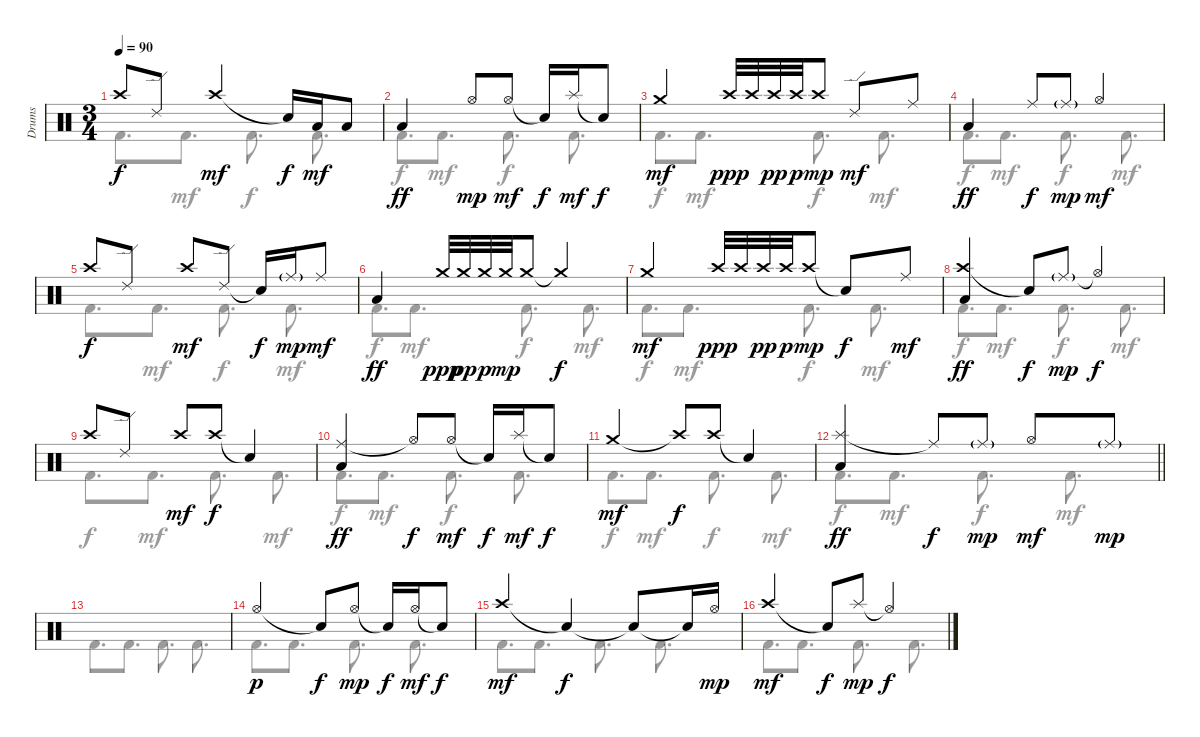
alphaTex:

\track ("Drums" "Drums") {instrument percussion}
\staff {score}
\articulation defaults
\voice
\ts (3 4)
\tempo 90
\clef neutral
\ks c "Crash high (hit)".8{dy f} "Ride (edge) 2".8 "Crash high (hit)".4{dy mf} "Snare (hit)"{t}.16{dy f} "Low Floor Tom (hit)".16{dy mf} "Low Floor Tom (hit)".8
|
"Low Tom (hit)".4{dy ff} "Hi-Hat (open)".8{dy mp} "Hi-Hat (open)".8{dy mf} "Snare (hit)"{t}.16{dy f} "Splash (hit)".16{dy mf} "Snare (hit)"{t}.8{dy f} |
"Crash medium (hit)".4{dy mf} "Crash high (hit)".32{dy ppp} "Crash high (hit)".32 "Crash high (hit)".32{dy pp} "Crash high (hit)".32{dy p} "Crash high (hit)".8{dy mp} "Ride (edge) 2".8{dy mf} "Ride (middle)".8 |
"Low Tom (hit)".4{dy ff} "Ride (middle)".8{dy f} "Ride (middle)"{g}.8{dy mp} "Hi-Hat (open)".4{dy mf} |
"Crash high (hit)".8{dy f} "Ride (edge) 2".8 "Crash high (hit)".8{dy mf} "Ride (edge) 2".8 "Snare (hit)"{t}.16{dy f} "Ride (middle)"{g}.16{dy mp} "Ride (middle)".8{dy mf} |
"Low Tom (hit)".4{dy ff} "Crash medium (hit)".32{dy ppp} "Crash medium (hit)".32{dy pp} "Crash medium (hit)".32{dy p} "Crash medium (hit)".32{dy mp} "Crash medium (hit)".8 "Crash medium (hit)"{t}.4{dy f} |
"Crash medium (hit)".4{dy mf} "Crash high (hit)".32{dy ppp} "Crash high (hit)".32 "Crash high (hit)".32{dy pp} "Crash high (hit)".32{dy p} "Crash high (hit)".8{dy mp} "Snare (hit)"{t}.8{dy f} "Ride (middle)".8{dy mf} |
("Crash high (hit)" "Low Tom (hit)").4{dy ff} "Snare (hit)"{t}.8{dy f} "Ride (middle)"{g}.8{dy mp} "Hi-Hat (open)"{t}.4{dy f} |
"Crash high (hit)".8 "Ride (edge) 2".8 "Crash high (hit)".8{dy mf} "Crash high (hit)".8{dy f} "Snare (hit)"{t}.4 |
("Ride (middle)" "Low Tom (hit)").4{dy ff} "Hi-Hat (open)"{t}.8{dy f} "Hi-Hat (open)".8{dy mf} "Snare (hit)"{t}.16{dy f} "Splash (hit)".16{dy mf} "Snare (hit)"{t}.8{dy f} |
"Crash medium (hit)".4{dy mf} "Crash high (hit)"{t}.8{dy f} "Crash high (hit)".8 "Snare (hit)"{t}.4 |
\barLineRight lightlight
("Splash (hit)" "Low Tom (hit)").4{dy ff} "Ride (middle)"{t}.8{dy f} "Ride (middle)"{g}.8{dy mp} "Hi-Hat (open)".8{dy mf} "Ride (middle)"{g}.8{dy mp} |
\section ("" "")
|
"Hi-Hat (open)".4{dy p} "Snare (hit)"{t}.8{dy f} "Hi-Hat (open)".8{dy mp} "Snare (hit)"{t}.16{dy f} "Hi-Hat (open)".16{dy mf} "Snare (hit)"{t}.8{dy f} |
"Crash high (hit)".4{dy mf} "Snare (hit)"{t}.4{dy f} "Snare (hit)"{t}.8 "Snare (hit)"{t}.16 "Hi-Hat (open)".16{dy mp} |
"Crash high (hit)".4{dy mf} "Snare (hit)"{t}.8{dy f} "Splash (hit)".8{dy mp} "Hi-Hat (open)"{t}.4{dy f}
\voice
\clef neutral
\ottava regular
\simile none
\ks c "Kick (hit) 2".8{d dy f} "Kick (hit) 2".8{d dy mf} "Kick (hit) 2".8{d dy f} "Kick (hit) 2".8{d dy mf}
|
"Kick (hit) 2".8{d dy f} "Kick (hit) 2".8{d dy mf} "Kick (hit) 2".8{d dy f} "Kick (hit) 2".8{d dy mf} |
"Kick (hit) 2".8{d dy f} "Kick (hit) 2".8{d dy mf} "Kick (hit) 2".8{d dy f} "Kick (hit) 2".8{d dy mf} |
"Kick (hit) 2".8{d dy f} "Kick (hit) 2".8{d dy mf} "Kick (hit) 2".8{d dy f} "Kick (hit) 2".8{d dy mf} |
"Kick (hit) 2".8{d dy f} "Kick (hit) 2".8{d dy mf} "Kick (hit) 2".8{d dy f} "Kick (hit) 2".8{d dy mf} |
"Kick (hit) 2".8{d dy f} "Kick (hit) 2".8{d dy mf} "Kick (hit) 2".8{d dy f} "Kick (hit) 2".8{d dy mf} |
"Kick (hit) 2".8{d dy f} "Kick (hit) 2".8{d dy mf} "Kick (hit) 2".8{d dy f} "Kick (hit) 2".8{d dy mf} |
"Kick (hit) 2".8{d dy f} "Kick (hit) 2".8{d dy mf} "Kick (hit) 2".8{d dy f} "Kick (hit) 2".8{d dy mf} |
"Kick (hit) 2".8{d dy f} "Kick (hit) 2".8{d dy mf} "Kick (hit) 2".8{d dy f} "Kick (hit) 2".8{d dy mf} |
"Kick (hit) 2".8{d dy f} "Kick (hit) 2".8{d dy mf} "Kick (hit) 2".8{d dy f} "Kick (hit) 2".8{d dy mf} |
"Kick (hit) 2".8{d dy f} "Kick (hit) 2".8{d dy mf} "Kick (hit) 2".8{d dy f} "Kick (hit) 2".8{d dy mf} |
\barLineRight lightlight "Kick (hit) 2".8{d dy f} "Kick (hit) 2".8{d dy mf} "Kick (hit) 2".8{d dy f} "Kick (hit) 2".8{d dy mf}
|
"Kick (hit) 2".8{d} "Kick (hit) 2".8{d} "Kick (hit) 2".8{d} "Kick (hit) 2".8{d} |
"Kick (hit) 2".8{d} "Kick (hit) 2".8{d} "Kick (hit) 2".8{d} "Kick (hit) 2".8{d} |
"Kick (hit) 2".8{d} "Kick (hit) 2".8{d} "Kick (hit) 2".8{d} "Kick (hit) 2".8{d} |
"Kick (hit) 2".8{d} "Kick (hit) 2".8{d} "Kick (hit) 2".8{d} "Kick (hit) 2".8{d}
